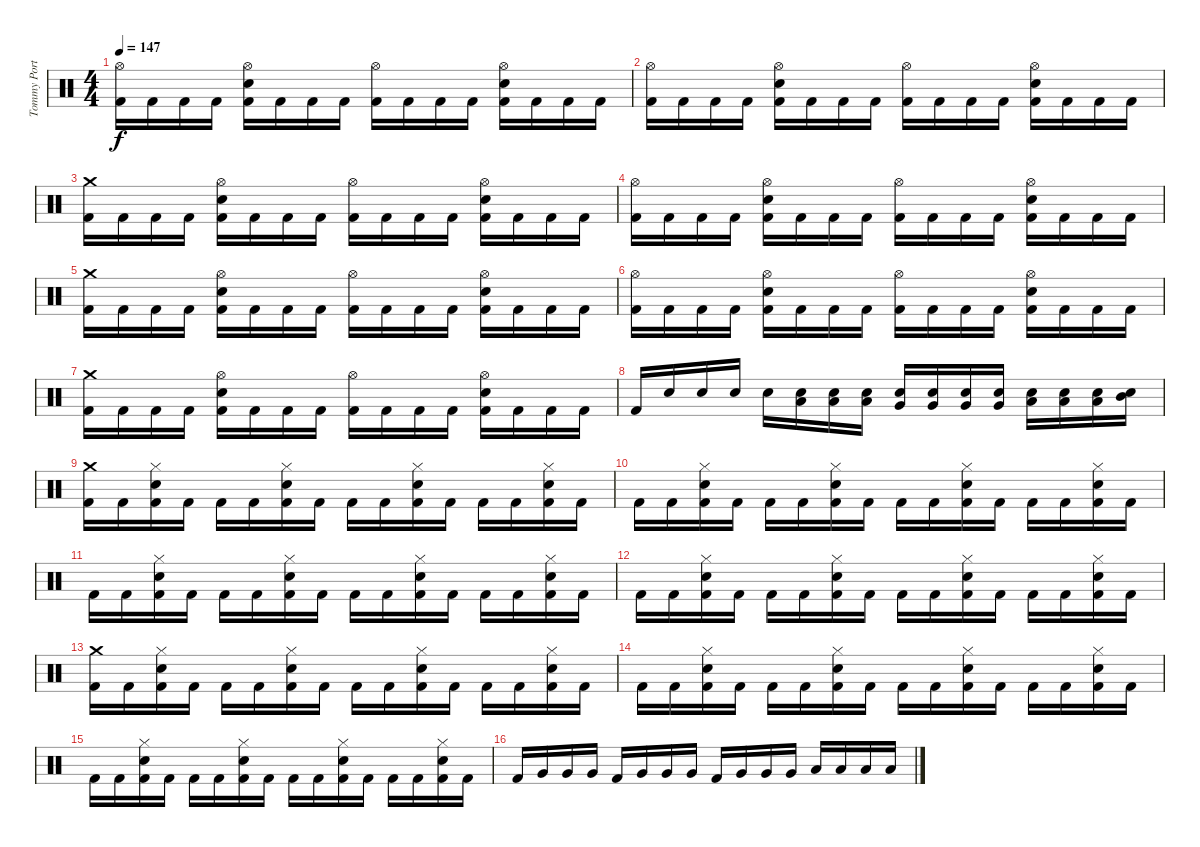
\track ("Tommy Portino" "Tommy Port") {instrument percussion}
\staff {score}
\articulation defaults
\ts (4 4)
\tempo 147
\clef neutral
\ks c
("Hi-Hat (open)" "Kick (hit) 2").16{dy f} "Kick (hit) 2".16 "Kick (hit) 2".16 "Kick (hit) 2".16 ("Hi-Hat (open)" "Electric Snare (hit)" "Kick (hit) 2").16 "Kick (hit) 2".16 "Kick (hit) 2".16 "Kick (hit) 2".16 ("Hi-Hat (open)" "Kick (hit) 2").16 "Kick (hit) 2".16 "Kick (hit) 2".16 "Kick (hit) 2".16 ("Hi-Hat (open)" "Electric Snare (hit)" "Kick (hit) 2").16 "Kick (hit) 2".16 "Kick (hit) 2".16 "Kick (hit) 2".16 |
("Hi-Hat (open)" "Kick (hit) 2").16 "Kick (hit) 2".16 "Kick (hit) 2".16 "Kick (hit) 2".16 ("Hi-Hat (open)" "Electric Snare (hit)" "Kick (hit) 2").16 "Kick (hit) 2".16 "Kick (hit) 2".16 "Kick (hit) 2".16 ("Hi-Hat (open)" "Kick (hit) 2").16 "Kick (hit) 2".16 "Kick (hit) 2".16 "Kick (hit) 2".16 ("Hi-Hat (open)" "Electric Snare (hit)" "Kick (hit) 2").16 "Kick (hit) 2".16 "Kick (hit) 2".16 "Kick (hit) 2".16 |
("Crash medium (hit)" "Kick (hit) 2").16 "Kick (hit) 2".16 "Kick (hit) 2".16 "Kick (hit) 2".16 ("Hi-Hat (open)" "Electric Snare (hit)" "Kick (hit) 2").16 "Kick (hit) 2".16 "Kick (hit) 2".16 "Kick (hit) 2".16 ("Hi-Hat (open)" "Kick (hit) 2").16 "Kick (hit) 2".16 "Kick (hit) 2".16 "Kick (hit) 2".16 ("Hi-Hat (open)" "Electric Snare (hit)" "Kick (hit) 2").16 "Kick (hit) 2".16 "Kick (hit) 2".16 "Kick (hit) 2".16 |
("Hi-Hat (open)" "Kick (hit) 2").16 "Kick (hit) 2".16 "Kick (hit) 2".16 "Kick (hit) 2".16 ("Hi-Hat (open)" "Electric Snare (hit)" "Kick (hit) 2").16 "Kick (hit) 2".16 "Kick (hit) 2".16 "Kick (hit) 2".16 ("Hi-Hat (open)" "Kick (hit) 2").16 "Kick (hit) 2".16 "Kick (hit) 2".16 "Kick (hit) 2".16 ("Hi-Hat (open)" "Electric Snare (hit)" "Kick (hit) 2").16 "Kick (hit) 2".16 "Kick (hit) 2".16 "Kick (hit) 2".16 |
("Crash medium (hit)" "Kick (hit) 2").16 "Kick (hit) 2".16 "Kick (hit) 2".16 "Kick (hit) 2".16 ("Hi-Hat (open)" "Electric Snare (hit)" "Kick (hit) 2").16 "Kick (hit) 2".16 "Kick (hit) 2".16 "Kick (hit) 2".16 ("Hi-Hat (open)" "Kick (hit) 2").16 "Kick (hit) 2".16 "Kick (hit) 2".16 "Kick (hit) 2".16 ("Hi-Hat (open)" "Electric Snare (hit)" "Kick (hit) 2").16 "Kick (hit) 2".16 "Kick (hit) 2".16 "Kick (hit) 2".16 |
("Hi-Hat (open)" "Kick (hit) 2").16 "Kick (hit) 2".16 "Kick (hit) 2".16 "Kick (hit) 2".16 ("Hi-Hat (open)" "Electric Snare (hit)" "Kick (hit) 2").16 "Kick (hit) 2".16 "Kick (hit) 2".16 "Kick (hit) 2".16 ("Hi-Hat (open)" "Kick (hit) 2").16 "Kick (hit) 2".16 "Kick (hit) 2".16 "Kick (hit) 2".16 ("Hi-Hat (open)" "Electric Snare (hit)" "Kick (hit) 2").16 "Kick (hit) 2".16 "Kick (hit) 2".16 "Kick (hit) 2".16 |
("Crash medium (hit)" "Kick (hit) 2").16 "Kick (hit) 2".16 "Kick (hit) 2".16 "Kick (hit) 2".16 ("Hi-Hat (open)" "Electric Snare (hit)" "Kick (hit) 2").16 "Kick (hit) 2".16 "Kick (hit) 2".16 "Kick (hit) 2".16 ("Hi-Hat (open)" "Kick (hit) 2").16 "Kick (hit) 2".16 "Kick (hit) 2".16 "Kick (hit) 2".16 ("Hi-Hat (open)" "Electric Snare (hit)" "Kick (hit) 2").16 "Kick (hit) 2".16 "Kick (hit) 2".16 "Kick (hit) 2".16 |
"Kick (hit) 2".16 "Electric Snare (hit)".16 "Electric Snare (hit)".16 "Electric Snare (hit)".16 "Electric Snare (hit)".16 ("Electric Snare (hit)" "Low Floor Tom (hit)").16 ("Electric Snare (hit)" "Low Floor Tom (hit)").16 ("Electric Snare (hit)" "Low Floor Tom (hit)").16 ("Electric Snare (hit)" "Very Low Tom (hit)").16 ("Electric Snare (hit)" "Very Low Tom (hit)").16 ("Electric Snare (hit)" "Very Low Tom (hit)").16 ("Electric Snare (hit)" "Very Low Tom (hit)").16 ("Electric Snare (hit)" "Low Tom (hit)").16 ("Electric Snare (hit)" "Low Tom (hit)").16 ("Electric Snare (hit)" "Low Tom (hit)").16 ("Electric Snare (hit)" "Mid Tom (hit)").16 |
("Crash medium (hit)" "Kick (hit) 2").16 "Kick (hit) 2".16 ("Hi-Hat (closed)" "Electric Snare (hit)" "Kick (hit) 2").16 "Kick (hit) 2".16 "Kick (hit) 2".16 "Kick (hit) 2".16 ("Hi-Hat (closed)" "Electric Snare (hit)" "Kick (hit) 2").16 "Kick (hit) 2".16 "Kick (hit) 2".16 "Kick (hit) 2".16 ("Hi-Hat (closed)" "Electric Snare (hit)" "Kick (hit) 2").16 "Kick (hit) 2".16 "Kick (hit) 2".16 "Kick (hit) 2".16 ("Hi-Hat (closed)" "Electric Snare (hit)" "Kick (hit) 2").16 "Kick (hit) 2".16 |
"Kick (hit) 2".16 "Kick (hit) 2".16 ("Hi-Hat (closed)" "Electric Snare (hit)" "Kick (hit) 2").16 "Kick (hit) 2".16 "Kick (hit) 2".16 "Kick (hit) 2".16 ("Hi-Hat (closed)" "Electric Snare (hit)" "Kick (hit) 2").16 "Kick (hit) 2".16 "Kick (hit) 2".16 "Kick (hit) 2".16 ("Hi-Hat (closed)" "Electric Snare (hit)" "Kick (hit) 2").16 "Kick (hit) 2".16 "Kick (hit) 2".16 "Kick (hit) 2".16 ("Hi-Hat (closed)" "Electric Snare (hit)" "Kick (hit) 2").16 "Kick (hit) 2".16 |
"Kick (hit) 2".16 "Kick (hit) 2".16 ("Hi-Hat (closed)" "Electric Snare (hit)" "Kick (hit) 2").16 "Kick (hit) 2".16 "Kick (hit) 2".16 "Kick (hit) 2".16 ("Hi-Hat (closed)" "Electric Snare (hit)" "Kick (hit) 2").16 "Kick (hit) 2".16 "Kick (hit) 2".16 "Kick (hit) 2".16 ("Hi-Hat (closed)" "Electric Snare (hit)" "Kick (hit) 2").16 "Kick (hit) 2".16 "Kick (hit) 2".16 "Kick (hit) 2".16 ("Hi-Hat (closed)" "Electric Snare (hit)" "Kick (hit) 2").16 "Kick (hit) 2".16 |
"Kick (hit) 2".16 "Kick (hit) 2".16 ("Hi-Hat (closed)" "Electric Snare (hit)" "Kick (hit) 2").16 "Kick (hit) 2".16 "Kick (hit) 2".16 "Kick (hit) 2".16 ("Hi-Hat (closed)" "Electric Snare (hit)" "Kick (hit) 2").16 "Kick (hit) 2".16 "Kick (hit) 2".16 "Kick (hit) 2".16 ("Hi-Hat (closed)" "Electric Snare (hit)" "Kick (hit) 2").16 "Kick (hit) 2".16 "Kick (hit) 2".16 "Kick (hit) 2".16 ("Hi-Hat (closed)" "Electric Snare (hit)" "Kick (hit) 2").16 "Kick (hit) 2".16 |
("Crash medium (hit)" "Kick (hit) 2").16 "Kick (hit) 2".16 ("Hi-Hat (closed)" "Electric Snare (hit)" "Kick (hit) 2").16 "Kick (hit) 2".16 "Kick (hit) 2".16 "Kick (hit) 2".16 ("Hi-Hat (closed)" "Electric Snare (hit)" "Kick (hit) 2").16 "Kick (hit) 2".16 "Kick (hit) 2".16 "Kick (hit) 2".16 ("Hi-Hat (closed)" "Electric Snare (hit)" "Kick (hit) 2").16 "Kick (hit) 2".16 "Kick (hit) 2".16 "Kick (hit) 2".16 ("Hi-Hat (closed)" "Electric Snare (hit)" "Kick (hit) 2").16 "Kick (hit) 2".16 |
"Kick (hit) 2".16 "Kick (hit) 2".16 ("Hi-Hat (closed)" "Electric Snare (hit)" "Kick (hit) 2").16 "Kick (hit) 2".16 "Kick (hit) 2".16 "Kick (hit) 2".16 ("Hi-Hat (closed)" "Electric Snare (hit)" "Kick (hit) 2").16 "Kick (hit) 2".16 "Kick (hit) 2".16 "Kick (hit) 2".16 ("Hi-Hat (closed)" "Electric Snare (hit)" "Kick (hit) 2").16 "Kick (hit) 2".16 "Kick (hit) 2".16 "Kick (hit) 2".16 ("Hi-Hat (closed)" "Electric Snare (hit)" "Kick (hit) 2").16 "Kick (hit) 2".16 |
"Kick (hit) 2".16 "Kick (hit) 2".16 ("Hi-Hat (closed)" "Electric Snare (hit)" "Kick (hit) 2").16 "Kick (hit) 2".16 "Kick (hit) 2".16 "Kick (hit) 2".16 ("Hi-Hat (closed)" "Electric Snare (hit)" "Kick (hit) 2").16 "Kick (hit) 2".16 "Kick (hit) 2".16 "Kick (hit) 2".16 ("Hi-Hat (closed)" "Electric Snare (hit)" "Kick (hit) 2").16 "Kick (hit) 2".16 "Kick (hit) 2".16 "Kick (hit) 2".16 ("Hi-Hat (closed)" "Electric Snare (hit)" "Kick (hit) 2").16 "Kick (hit) 2".16 |
"Kick (hit) 2".16 "Very Low Tom (hit)".16 "Very Low Tom (hit)".16 "Very Low Tom (hit)".16 "Kick (hit) 2".16 "Very Low Tom (hit)".16 "Very Low Tom (hit)".16 "Very Low Tom (hit)".16 "Kick (hit) 2".16 "Very Low Tom (hit)".16 "Very Low Tom (hit)".16 "Very Low Tom (hit)".16 "Low Floor Tom (hit)".16 "Low Floor Tom (hit)".16 "Low Floor Tom (hit)".16 "Low Floor Tom (hit)".16
